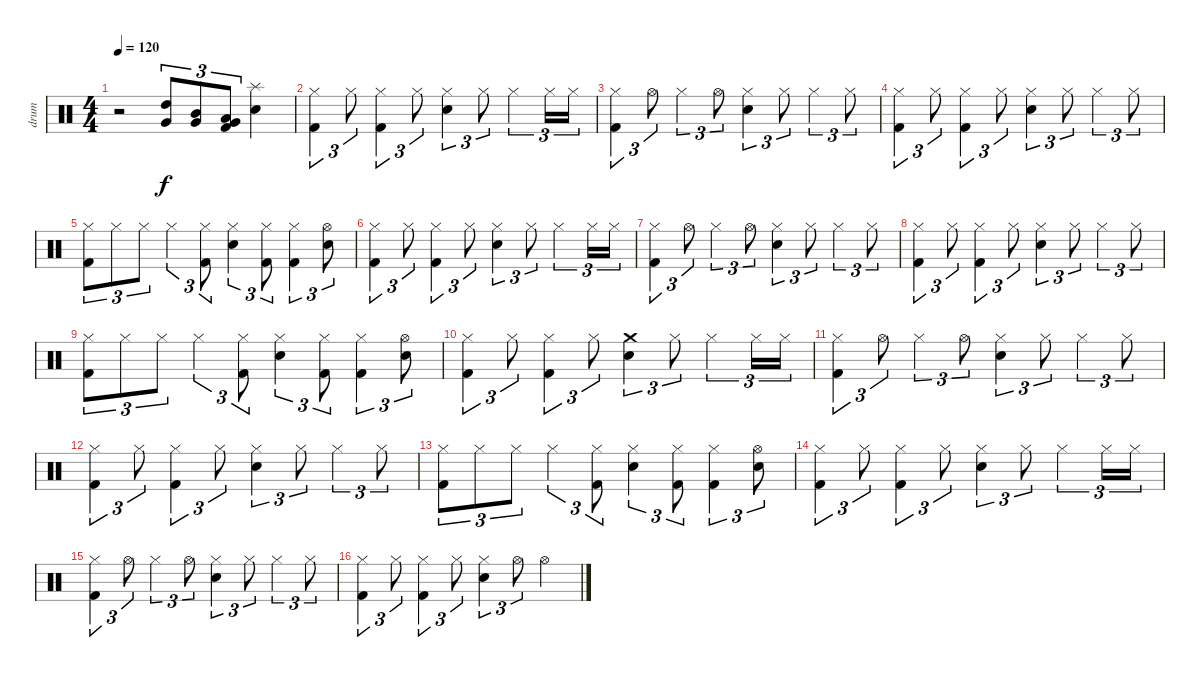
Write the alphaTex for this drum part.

\track ("drum" "drum") {instrument percussion}
\staff {score}
\articulation defaults
\ts (4 4)
\tempo 120
\clef neutral
\ks c
r.2{dy f} ("High Tom (hit)" "Very Low Tom (hit)").8{tu (3 2)} ("Mid Tom (hit)" "Very Low Tom (hit)").8{tu (3 2)} ("Low Tom (hit)" "Very Low Tom (hit)" "Kick (hit) 2").8{tu (3 2)} ("Splash (hit)" "Electric Snare (hit)").4 |
("Hi-Hat (closed)" "Kick (hit) 2").4{tu (3 2)} "Hi-Hat (closed)".8{tu (3 2)} ("Hi-Hat (closed)" "Kick (hit) 2").4{tu (3 2)} "Hi-Hat (closed)".8{tu (3 2)} ("Hi-Hat (closed)" "Electric Snare (hit)").4{tu (3 2)} "Hi-Hat (closed)".8{tu (3 2)} "Hi-Hat (closed)".4{tu (3 2)} "Hi-Hat (closed)".16{tu (3 2)} "Hi-Hat (closed)".16{tu (3 2)} |
("Hi-Hat (closed)" "Kick (hit) 2").4{tu (3 2)} "Hi-Hat (open)".8{tu (3 2)} "Hi-Hat (closed)".4{tu (3 2)} "Hi-Hat (open)".8{tu (3 2)} ("Hi-Hat (closed)" "Electric Snare (hit)").4{tu (3 2)} "Hi-Hat (closed)".8{tu (3 2)} "Hi-Hat (closed)".4{tu (3 2)} "Hi-Hat (closed)".8{tu (3 2)} |
("Hi-Hat (closed)" "Kick (hit) 2").4{tu (3 2)} "Hi-Hat (closed)".8{tu (3 2)} ("Hi-Hat (closed)" "Kick (hit) 2").4{tu (3 2)} "Hi-Hat (closed)".8{tu (3 2)} ("Hi-Hat (closed)" "Electric Snare (hit)").4{tu (3 2)} "Hi-Hat (closed)".8{tu (3 2)} "Hi-Hat (closed)".4{tu (3 2)} "Hi-Hat (closed)".8{tu (3 2)} |
("Hi-Hat (closed)" "Kick (hit) 2").8{tu (3 2)} "Hi-Hat (closed)".8{tu (3 2)} "Hi-Hat (closed)".8{tu (3 2)} "Hi-Hat (closed)".4{tu (3 2)} ("Hi-Hat (closed)" "Kick (hit) 2").8{tu (3 2)} ("Hi-Hat (closed)" "Electric Snare (hit)").4{tu (3 2)} ("Hi-Hat (closed)" "Kick (hit) 2").8{tu (3 2)} ("Hi-Hat (closed)" "Kick (hit) 2").4{tu (3 2)} ("Hi-Hat (open)" "Electric Snare (hit)").8{tu (3 2)} |
("Hi-Hat (closed)" "Kick (hit) 2").4{tu (3 2)} "Hi-Hat (closed)".8{tu (3 2)} ("Hi-Hat (closed)" "Kick (hit) 2").4{tu (3 2)} "Hi-Hat (closed)".8{tu (3 2)} ("Hi-Hat (closed)" "Electric Snare (hit)").4{tu (3 2)} "Hi-Hat (closed)".8{tu (3 2)} "Hi-Hat (closed)".4{tu (3 2)} "Hi-Hat (closed)".16{tu (3 2)} "Hi-Hat (closed)".16{tu (3 2)} |
("Hi-Hat (closed)" "Kick (hit) 2").4{tu (3 2)} "Hi-Hat (open)".8{tu (3 2)} "Hi-Hat (closed)".4{tu (3 2)} "Hi-Hat (open)".8{tu (3 2)} ("Hi-Hat (closed)" "Electric Snare (hit)").4{tu (3 2)} "Hi-Hat (closed)".8{tu (3 2)} "Hi-Hat (closed)".4{tu (3 2)} "Hi-Hat (closed)".8{tu (3 2)} |
("Hi-Hat (closed)" "Kick (hit) 2").4{tu (3 2)} "Hi-Hat (closed)".8{tu (3 2)} ("Hi-Hat (closed)" "Kick (hit) 2").4{tu (3 2)} "Hi-Hat (closed)".8{tu (3 2)} ("Hi-Hat (closed)" "Electric Snare (hit)").4{tu (3 2)} "Hi-Hat (closed)".8{tu (3 2)} "Hi-Hat (closed)".4{tu (3 2)} "Hi-Hat (closed)".8{tu (3 2)} |
("Hi-Hat (closed)" "Kick (hit) 2").8{tu (3 2)} "Hi-Hat (closed)".8{tu (3 2)} "Hi-Hat (closed)".8{tu (3 2)} "Hi-Hat (closed)".4{tu (3 2)} ("Hi-Hat (closed)" "Kick (hit) 2").8{tu (3 2)} ("Hi-Hat (closed)" "Electric Snare (hit)").4{tu (3 2)} ("Hi-Hat (closed)" "Kick (hit) 2").8{tu (3 2)} ("Hi-Hat (closed)" "Kick (hit) 2").4{tu (3 2)} ("Hi-Hat (open)" "Electric Snare (hit)").8{tu (3 2)} |
("Hi-Hat (closed)" "Kick (hit) 2").4{tu (3 2)} "Hi-Hat (closed)".8{tu (3 2)} ("Hi-Hat (closed)" "Kick (hit) 2").4{tu (3 2)} "Hi-Hat (closed)".8{tu (3 2)} ("Crash medium (hit)" "Electric Snare (hit)").4{tu (3 2)} "Hi-Hat (closed)".8{tu (3 2)} "Hi-Hat (closed)".4{tu (3 2)} "Hi-Hat (closed)".16{tu (3 2)} "Hi-Hat (closed)".16{tu (3 2)} |
("Hi-Hat (closed)" "Kick (hit) 2").4{tu (3 2)} "Hi-Hat (open)".8{tu (3 2)} "Hi-Hat (closed)".4{tu (3 2)} "Hi-Hat (open)".8{tu (3 2)} ("Hi-Hat (closed)" "Electric Snare (hit)").4{tu (3 2)} "Hi-Hat (closed)".8{tu (3 2)} "Hi-Hat (closed)".4{tu (3 2)} "Hi-Hat (closed)".8{tu (3 2)} |
("Hi-Hat (closed)" "Kick (hit) 2").4{tu (3 2)} "Hi-Hat (closed)".8{tu (3 2)} ("Hi-Hat (closed)" "Kick (hit) 2").4{tu (3 2)} "Hi-Hat (closed)".8{tu (3 2)} ("Hi-Hat (closed)" "Electric Snare (hit)").4{tu (3 2)} "Hi-Hat (closed)".8{tu (3 2)} "Hi-Hat (closed)".4{tu (3 2)} "Hi-Hat (closed)".8{tu (3 2)} |
("Hi-Hat (closed)" "Kick (hit) 2").8{tu (3 2)} "Hi-Hat (closed)".8{tu (3 2)} "Hi-Hat (closed)".8{tu (3 2)} "Hi-Hat (closed)".4{tu (3 2)} ("Hi-Hat (closed)" "Kick (hit) 2").8{tu (3 2)} ("Hi-Hat (closed)" "Electric Snare (hit)").4{tu (3 2)} ("Hi-Hat (closed)" "Kick (hit) 2").8{tu (3 2)} ("Hi-Hat (closed)" "Kick (hit) 2").4{tu (3 2)} ("Hi-Hat (open)" "Electric Snare (hit)").8{tu (3 2)} |
("Hi-Hat (closed)" "Kick (hit) 2").4{tu (3 2)} "Hi-Hat (closed)".8{tu (3 2)} ("Hi-Hat (closed)" "Kick (hit) 2").4{tu (3 2)} "Hi-Hat (closed)".8{tu (3 2)} ("Hi-Hat (closed)" "Electric Snare (hit)").4{tu (3 2)} "Hi-Hat (closed)".8{tu (3 2)} "Hi-Hat (closed)".4{tu (3 2)} "Hi-Hat (closed)".16{tu (3 2)} "Hi-Hat (closed)".16{tu (3 2)} |
("Hi-Hat (closed)" "Kick (hit) 2").4{tu (3 2)} "Hi-Hat (open)".8{tu (3 2)} "Hi-Hat (closed)".4{tu (3 2)} "Hi-Hat (open)".8{tu (3 2)} ("Hi-Hat (closed)" "Electric Snare (hit)").4{tu (3 2)} "Hi-Hat (closed)".8{tu (3 2)} "Hi-Hat (closed)".4{tu (3 2)} "Hi-Hat (closed)".8{tu (3 2)} |
("Hi-Hat (closed)" "Kick (hit) 2").4{tu (3 2)} "Hi-Hat (closed)".8{tu (3 2)} ("Hi-Hat (closed)" "Kick (hit) 2").4{tu (3 2)} "Hi-Hat (closed)".8{tu (3 2)} ("Hi-Hat (closed)" "Electric Snare (hit)").4{tu (3 2)} "Hi-Hat (open)".8{tu (3 2)} "Hi-Hat (open)".4
